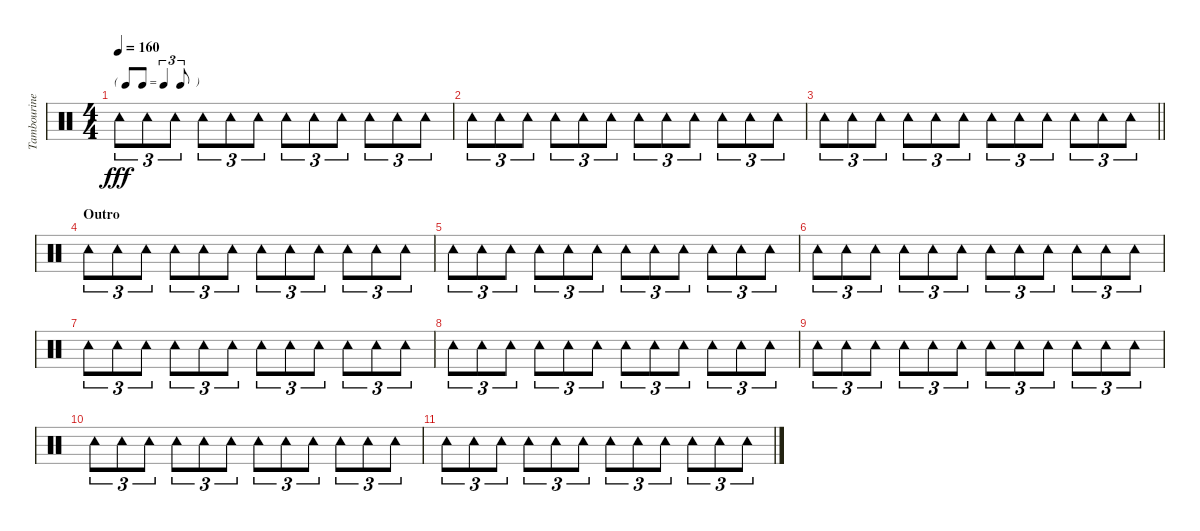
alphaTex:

\track ("Tambourine" "Tambourine") {instrument percussion}
\staff {score}
\articulation defaults
\ts (4 4)
\tf triplet8th
\tempo 160
\clef neutral
\ks c "Tambourine (hit)".8{tu (3 2) dy fff} "Tambourine (hit)".8{tu (3 2)} "Tambourine (hit)".8{tu (3 2)} "Tambourine (hit)".8{tu (3 2)} "Tambourine (hit)".8{tu (3 2)} "Tambourine (hit)".8{tu (3 2)} "Tambourine (hit)".8{tu (3 2)} "Tambourine (hit)".8{tu (3 2)} "Tambourine (hit)".8{tu (3 2)} "Tambourine (hit)".8{tu (3 2)} "Tambourine (hit)".8{tu (3 2)} "Tambourine (hit)".8{tu (3 2)}
|
"Tambourine (hit)".8{tu (3 2)} "Tambourine (hit)".8{tu (3 2)} "Tambourine (hit)".8{tu (3 2)} "Tambourine (hit)".8{tu (3 2)} "Tambourine (hit)".8{tu (3 2)} "Tambourine (hit)".8{tu (3 2)} "Tambourine (hit)".8{tu (3 2)} "Tambourine (hit)".8{tu (3 2)} "Tambourine (hit)".8{tu (3 2)} "Tambourine (hit)".8{tu (3 2)} "Tambourine (hit)".8{tu (3 2)} "Tambourine (hit)".8{tu (3 2)} |
\barLineRight lightlight "Tambourine (hit)".8{tu (3 2)} "Tambourine (hit)".8{tu (3 2)} "Tambourine (hit)".8{tu (3 2)} "Tambourine (hit)".8{tu (3 2)} "Tambourine (hit)".8{tu (3 2)} "Tambourine (hit)".8{tu (3 2)} "Tambourine (hit)".8{tu (3 2)} "Tambourine (hit)".8{tu (3 2)} "Tambourine (hit)".8{tu (3 2)} "Tambourine (hit)".8{tu (3 2)} "Tambourine (hit)".8{tu (3 2)} "Tambourine (hit)".8{tu (3 2)}
|
\section ("" "Outro")
"Tambourine (hit)".8{tu (3 2)} "Tambourine (hit)".8{tu (3 2)} "Tambourine (hit)".8{tu (3 2)} "Tambourine (hit)".8{tu (3 2)} "Tambourine (hit)".8{tu (3 2)} "Tambourine (hit)".8{tu (3 2)} "Tambourine (hit)".8{tu (3 2)} "Tambourine (hit)".8{tu (3 2)} "Tambourine (hit)".8{tu (3 2)} "Tambourine (hit)".8{tu (3 2)} "Tambourine (hit)".8{tu (3 2)} "Tambourine (hit)".8{tu (3 2)} |
"Tambourine (hit)".8{tu (3 2)} "Tambourine (hit)".8{tu (3 2)} "Tambourine (hit)".8{tu (3 2)} "Tambourine (hit)".8{tu (3 2)} "Tambourine (hit)".8{tu (3 2)} "Tambourine (hit)".8{tu (3 2)} "Tambourine (hit)".8{tu (3 2)} "Tambourine (hit)".8{tu (3 2)} "Tambourine (hit)".8{tu (3 2)} "Tambourine (hit)".8{tu (3 2)} "Tambourine (hit)".8{tu (3 2)} "Tambourine (hit)".8{tu (3 2)} |
"Tambourine (hit)".8{tu (3 2)} "Tambourine (hit)".8{tu (3 2)} "Tambourine (hit)".8{tu (3 2)} "Tambourine (hit)".8{tu (3 2)} "Tambourine (hit)".8{tu (3 2)} "Tambourine (hit)".8{tu (3 2)} "Tambourine (hit)".8{tu (3 2)} "Tambourine (hit)".8{tu (3 2)} "Tambourine (hit)".8{tu (3 2)} "Tambourine (hit)".8{tu (3 2)} "Tambourine (hit)".8{tu (3 2)} "Tambourine (hit)".8{tu (3 2)} |
"Tambourine (hit)".8{tu (3 2)} "Tambourine (hit)".8{tu (3 2)} "Tambourine (hit)".8{tu (3 2)} "Tambourine (hit)".8{tu (3 2)} "Tambourine (hit)".8{tu (3 2)} "Tambourine (hit)".8{tu (3 2)} "Tambourine (hit)".8{tu (3 2)} "Tambourine (hit)".8{tu (3 2)} "Tambourine (hit)".8{tu (3 2)} "Tambourine (hit)".8{tu (3 2)} "Tambourine (hit)".8{tu (3 2)} "Tambourine (hit)".8{tu (3 2)} |
"Tambourine (hit)".8{tu (3 2)} "Tambourine (hit)".8{tu (3 2)} "Tambourine (hit)".8{tu (3 2)} "Tambourine (hit)".8{tu (3 2)} "Tambourine (hit)".8{tu (3 2)} "Tambourine (hit)".8{tu (3 2)} "Tambourine (hit)".8{tu (3 2)} "Tambourine (hit)".8{tu (3 2)} "Tambourine (hit)".8{tu (3 2)} "Tambourine (hit)".8{tu (3 2)} "Tambourine (hit)".8{tu (3 2)} "Tambourine (hit)".8{tu (3 2)} |
"Tambourine (hit)".8{tu (3 2)} "Tambourine (hit)".8{tu (3 2)} "Tambourine (hit)".8{tu (3 2)} "Tambourine (hit)".8{tu (3 2)} "Tambourine (hit)".8{tu (3 2)} "Tambourine (hit)".8{tu (3 2)} "Tambourine (hit)".8{tu (3 2)} "Tambourine (hit)".8{tu (3 2)} "Tambourine (hit)".8{tu (3 2)} "Tambourine (hit)".8{tu (3 2)} "Tambourine (hit)".8{tu (3 2)} "Tambourine (hit)".8{tu (3 2)} |
"Tambourine (hit)".8{tu (3 2)} "Tambourine (hit)".8{tu (3 2)} "Tambourine (hit)".8{tu (3 2)} "Tambourine (hit)".8{tu (3 2)} "Tambourine (hit)".8{tu (3 2)} "Tambourine (hit)".8{tu (3 2)} "Tambourine (hit)".8{tu (3 2)} "Tambourine (hit)".8{tu (3 2)} "Tambourine (hit)".8{tu (3 2)} "Tambourine (hit)".8{tu (3 2)} "Tambourine (hit)".8{tu (3 2)} "Tambourine (hit)".8{tu (3 2)} |
"Tambourine (hit)".8{tu (3 2)} "Tambourine (hit)".8{tu (3 2)} "Tambourine (hit)".8{tu (3 2)} "Tambourine (hit)".8{tu (3 2)} "Tambourine (hit)".8{tu (3 2)} "Tambourine (hit)".8{tu (3 2)} "Tambourine (hit)".8{tu (3 2)} "Tambourine (hit)".8{tu (3 2)} "Tambourine (hit)".8{tu (3 2)} "Tambourine (hit)".8{tu (3 2)} "Tambourine (hit)".8{tu (3 2)} "Tambourine (hit)".8{tu (3 2)}
